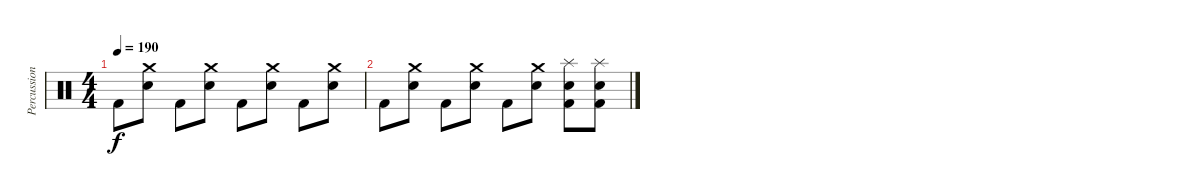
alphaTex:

\track ("Percussion" "Percussion") {instrument percussion}
\staff {score}
\articulation defaults
\ts (4 4)
\tempo 190
\clef neutral
\ks c "Kick (hit) 2".8{dy f}
("Crash medium (hit)" "Electric Snare (hit)").8 "Kick (hit) 2".8 ("Crash medium (hit)" "Electric Snare (hit)").8 "Kick (hit) 2".8 ("Crash medium (hit)" "Electric Snare (hit)").8 "Kick (hit) 2".8 ("Crash medium (hit)" "Electric Snare (hit)").8 |
"Kick (hit) 2".8 ("Crash medium (hit)" "Electric Snare (hit)").8 "Kick (hit) 2".8 ("Crash medium (hit)" "Electric Snare (hit)").8 "Kick (hit) 2".8 ("Crash medium (hit)" "Electric Snare (hit)").8 ("Splash (hit)" "Electric Snare (hit)" "Kick (hit) 2").8 ("Splash (hit)" "Electric Snare (hit)" "Kick (hit) 2").8
